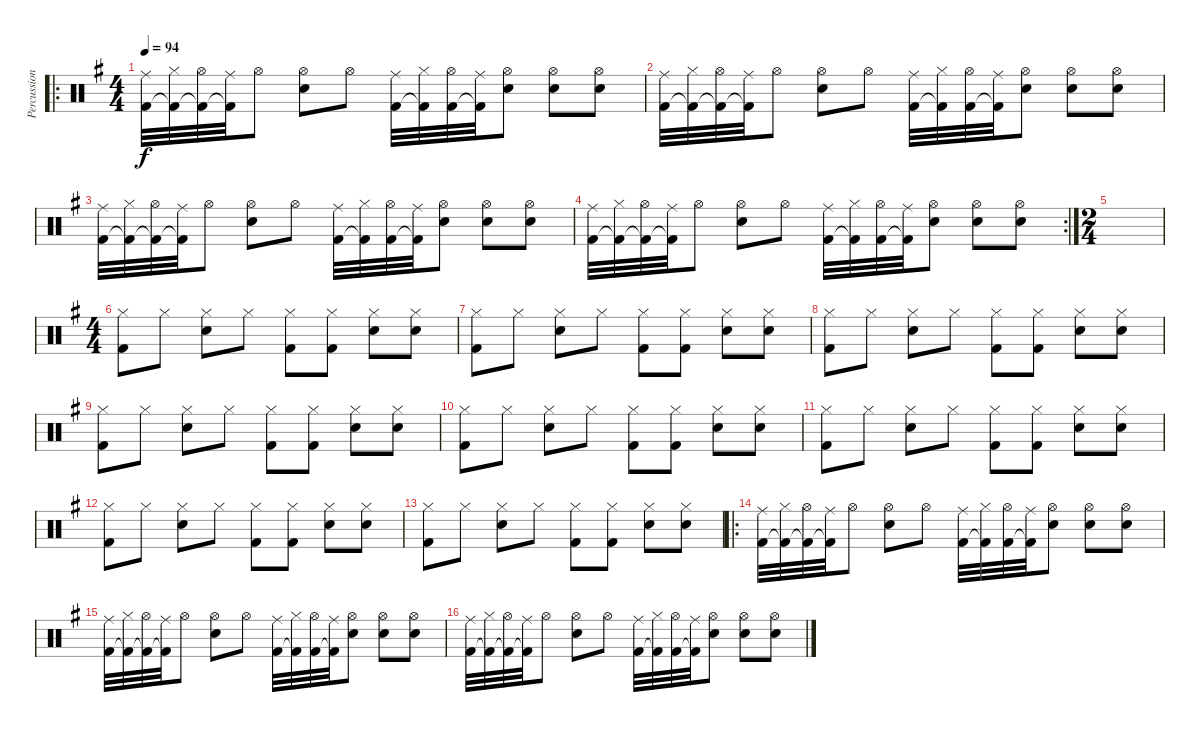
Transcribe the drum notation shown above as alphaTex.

\track ("Percussions" "Percussion") {instrument percussion}
\staff {score}
\articulation defaults
\ro
\ts (4 4)
\tempo 94
\clef neutral
\ks g
("Ride (middle)" "Kick (hit) 2").32{dy f} ("Hi-Hat (closed)" "Kick (hit) 2"{t}).32 ("Hi-Hat (open)" "Kick (hit) 2"{t}).32 ("Ride (middle)" "Kick (hit) 2"{t}).32 "Hi-Hat (open)".8 ("Hi-Hat (open)" "Snare (hit) 2").8 "Hi-Hat (open)".8 ("Ride (middle)" "Kick (hit) 2").32 ("Hi-Hat (closed)" "Kick (hit) 2"{t}).32 ("Hi-Hat (open)" "Kick (hit) 2").32 ("Ride (middle)" "Kick (hit) 2"{t}).32 ("Hi-Hat (open)" "Snare (hit) 2").8 ("Hi-Hat (open)" "Snare (hit) 2").8 ("Hi-Hat (open)" "Snare (hit) 2").8 |
("Ride (middle)" "Kick (hit) 2").32 ("Hi-Hat (closed)" "Kick (hit) 2"{t}).32 ("Hi-Hat (open)" "Kick (hit) 2"{t}).32 ("Ride (middle)" "Kick (hit) 2"{t}).32 "Hi-Hat (open)".8 ("Hi-Hat (open)" "Snare (hit) 2").8 "Hi-Hat (open)".8 ("Ride (middle)" "Kick (hit) 2").32 ("Hi-Hat (closed)" "Kick (hit) 2"{t}).32 ("Hi-Hat (open)" "Kick (hit) 2").32 ("Ride (middle)" "Kick (hit) 2"{t}).32 ("Hi-Hat (open)" "Snare (hit) 2").8 ("Hi-Hat (open)" "Snare (hit) 2").8 ("Hi-Hat (open)" "Snare (hit) 2").8 |
("Ride (middle)" "Kick (hit) 2").32 ("Hi-Hat (closed)" "Kick (hit) 2"{t}).32 ("Hi-Hat (open)" "Kick (hit) 2"{t}).32 ("Ride (middle)" "Kick (hit) 2"{t}).32 "Hi-Hat (open)".8 ("Hi-Hat (open)" "Snare (hit) 2").8 "Hi-Hat (open)".8 ("Ride (middle)" "Kick (hit) 2").32 ("Hi-Hat (closed)" "Kick (hit) 2"{t}).32 ("Hi-Hat (open)" "Kick (hit) 2").32 ("Ride (middle)" "Kick (hit) 2"{t}).32 ("Hi-Hat (open)" "Snare (hit) 2").8 ("Hi-Hat (open)" "Snare (hit) 2").8 ("Hi-Hat (open)" "Snare (hit) 2").8 |
\rc 2
("Ride (middle)" "Kick (hit) 2").32 ("Hi-Hat (closed)" "Kick (hit) 2"{t}).32 ("Hi-Hat (open)" "Kick (hit) 2"{t}).32 ("Ride (middle)" "Kick (hit) 2"{t}).32 "Hi-Hat (open)".8 ("Hi-Hat (open)" "Snare (hit) 2").8 "Hi-Hat (open)".8 ("Ride (middle)" "Kick (hit) 2").32 ("Hi-Hat (closed)" "Kick (hit) 2"{t}).32 ("Hi-Hat (open)" "Kick (hit) 2").32 ("Ride (middle)" "Kick (hit) 2"{t}).32 ("Hi-Hat (open)" "Snare (hit) 2").8 ("Hi-Hat (open)" "Snare (hit) 2").8 ("Hi-Hat (open)" "Snare (hit) 2").8 |
\ts (2 4)
|
\ts (4 4)
("Hi-Hat (closed)" "Kick (hit) 2").8 "Hi-Hat (closed)".8 ("Hi-Hat (closed)" "Snare (hit) 2").8 "Hi-Hat (closed)".8 ("Hi-Hat (closed)" "Kick (hit) 2").8 ("Hi-Hat (closed)" "Kick (hit) 2").8 ("Hi-Hat (closed)" "Snare (hit) 2").8 ("Hi-Hat (closed)" "Snare (hit) 2").8 |
("Hi-Hat (closed)" "Kick (hit) 2").8 "Hi-Hat (closed)".8 ("Hi-Hat (closed)" "Snare (hit) 2").8 "Hi-Hat (closed)".8 ("Hi-Hat (closed)" "Kick (hit) 2").8 ("Hi-Hat (closed)" "Kick (hit) 2").8 ("Hi-Hat (closed)" "Snare (hit) 2").8 ("Hi-Hat (closed)" "Snare (hit) 2").8 |
("Hi-Hat (closed)" "Kick (hit) 2").8 "Hi-Hat (closed)".8 ("Hi-Hat (closed)" "Snare (hit) 2").8 "Hi-Hat (closed)".8 ("Hi-Hat (closed)" "Kick (hit) 2").8 ("Hi-Hat (closed)" "Kick (hit) 2").8 ("Hi-Hat (closed)" "Snare (hit) 2").8 ("Hi-Hat (closed)" "Snare (hit) 2").8 |
("Hi-Hat (closed)" "Kick (hit) 2").8 "Hi-Hat (closed)".8 ("Hi-Hat (closed)" "Snare (hit) 2").8 "Hi-Hat (closed)".8 ("Hi-Hat (closed)" "Kick (hit) 2").8 ("Hi-Hat (closed)" "Kick (hit) 2").8 ("Hi-Hat (closed)" "Snare (hit) 2").8 ("Hi-Hat (closed)" "Snare (hit) 2").8 |
("Hi-Hat (closed)" "Kick (hit) 2").8 "Hi-Hat (closed)".8 ("Hi-Hat (closed)" "Snare (hit) 2").8 "Hi-Hat (closed)".8 ("Hi-Hat (closed)" "Kick (hit) 2").8 ("Hi-Hat (closed)" "Kick (hit) 2").8 ("Hi-Hat (closed)" "Snare (hit) 2").8 ("Hi-Hat (closed)" "Snare (hit) 2").8 |
("Hi-Hat (closed)" "Kick (hit) 2").8 "Hi-Hat (closed)".8 ("Hi-Hat (closed)" "Snare (hit) 2").8 "Hi-Hat (closed)".8 ("Hi-Hat (closed)" "Kick (hit) 2").8 ("Hi-Hat (closed)" "Kick (hit) 2").8 ("Hi-Hat (closed)" "Snare (hit) 2").8 ("Hi-Hat (closed)" "Snare (hit) 2").8 |
("Hi-Hat (closed)" "Kick (hit) 2").8 "Hi-Hat (closed)".8 ("Hi-Hat (closed)" "Snare (hit) 2").8 "Hi-Hat (closed)".8 ("Hi-Hat (closed)" "Kick (hit) 2").8 ("Hi-Hat (closed)" "Kick (hit) 2").8 ("Hi-Hat (closed)" "Snare (hit) 2").8 ("Hi-Hat (closed)" "Snare (hit) 2").8 |
("Hi-Hat (closed)" "Kick (hit) 2").8 "Hi-Hat (closed)".8 ("Hi-Hat (closed)" "Snare (hit) 2").8 "Hi-Hat (closed)".8 ("Hi-Hat (closed)" "Kick (hit) 2").8 ("Hi-Hat (closed)" "Kick (hit) 2").8 ("Hi-Hat (closed)" "Snare (hit) 2").8 ("Hi-Hat (closed)" "Snare (hit) 2").8 |
\ro
("Ride (middle)" "Kick (hit) 2").32 ("Hi-Hat (closed)" "Kick (hit) 2"{t}).32 ("Hi-Hat (open)" "Kick (hit) 2"{t}).32 ("Ride (middle)" "Kick (hit) 2"{t}).32 "Hi-Hat (open)".8 ("Hi-Hat (open)" "Snare (hit) 2").8 "Hi-Hat (open)".8 ("Ride (middle)" "Kick (hit) 2").32 ("Hi-Hat (closed)" "Kick (hit) 2"{t}).32 ("Hi-Hat (open)" "Kick (hit) 2").32 ("Ride (middle)" "Kick (hit) 2"{t}).32 ("Hi-Hat (open)" "Snare (hit) 2").8 ("Hi-Hat (open)" "Snare (hit) 2").8 ("Hi-Hat (open)" "Snare (hit) 2").8 |
("Ride (middle)" "Kick (hit) 2").32 ("Hi-Hat (closed)" "Kick (hit) 2"{t}).32 ("Hi-Hat (open)" "Kick (hit) 2"{t}).32 ("Ride (middle)" "Kick (hit) 2"{t}).32 "Hi-Hat (open)".8 ("Hi-Hat (open)" "Snare (hit) 2").8 "Hi-Hat (open)".8 ("Ride (middle)" "Kick (hit) 2").32 ("Hi-Hat (closed)" "Kick (hit) 2"{t}).32 ("Hi-Hat (open)" "Kick (hit) 2").32 ("Ride (middle)" "Kick (hit) 2"{t}).32 ("Hi-Hat (open)" "Snare (hit) 2").8 ("Hi-Hat (open)" "Snare (hit) 2").8 ("Hi-Hat (open)" "Snare (hit) 2").8 |
("Ride (middle)" "Kick (hit) 2").32 ("Hi-Hat (closed)" "Kick (hit) 2"{t}).32 ("Hi-Hat (open)" "Kick (hit) 2"{t}).32 ("Ride (middle)" "Kick (hit) 2"{t}).32 "Hi-Hat (open)".8 ("Hi-Hat (open)" "Snare (hit) 2").8 "Hi-Hat (open)".8 ("Ride (middle)" "Kick (hit) 2").32 ("Hi-Hat (closed)" "Kick (hit) 2"{t}).32 ("Hi-Hat (open)" "Kick (hit) 2").32 ("Ride (middle)" "Kick (hit) 2"{t}).32 ("Hi-Hat (open)" "Snare (hit) 2").8 ("Hi-Hat (open)" "Snare (hit) 2").8 ("Hi-Hat (open)" "Snare (hit) 2").8
